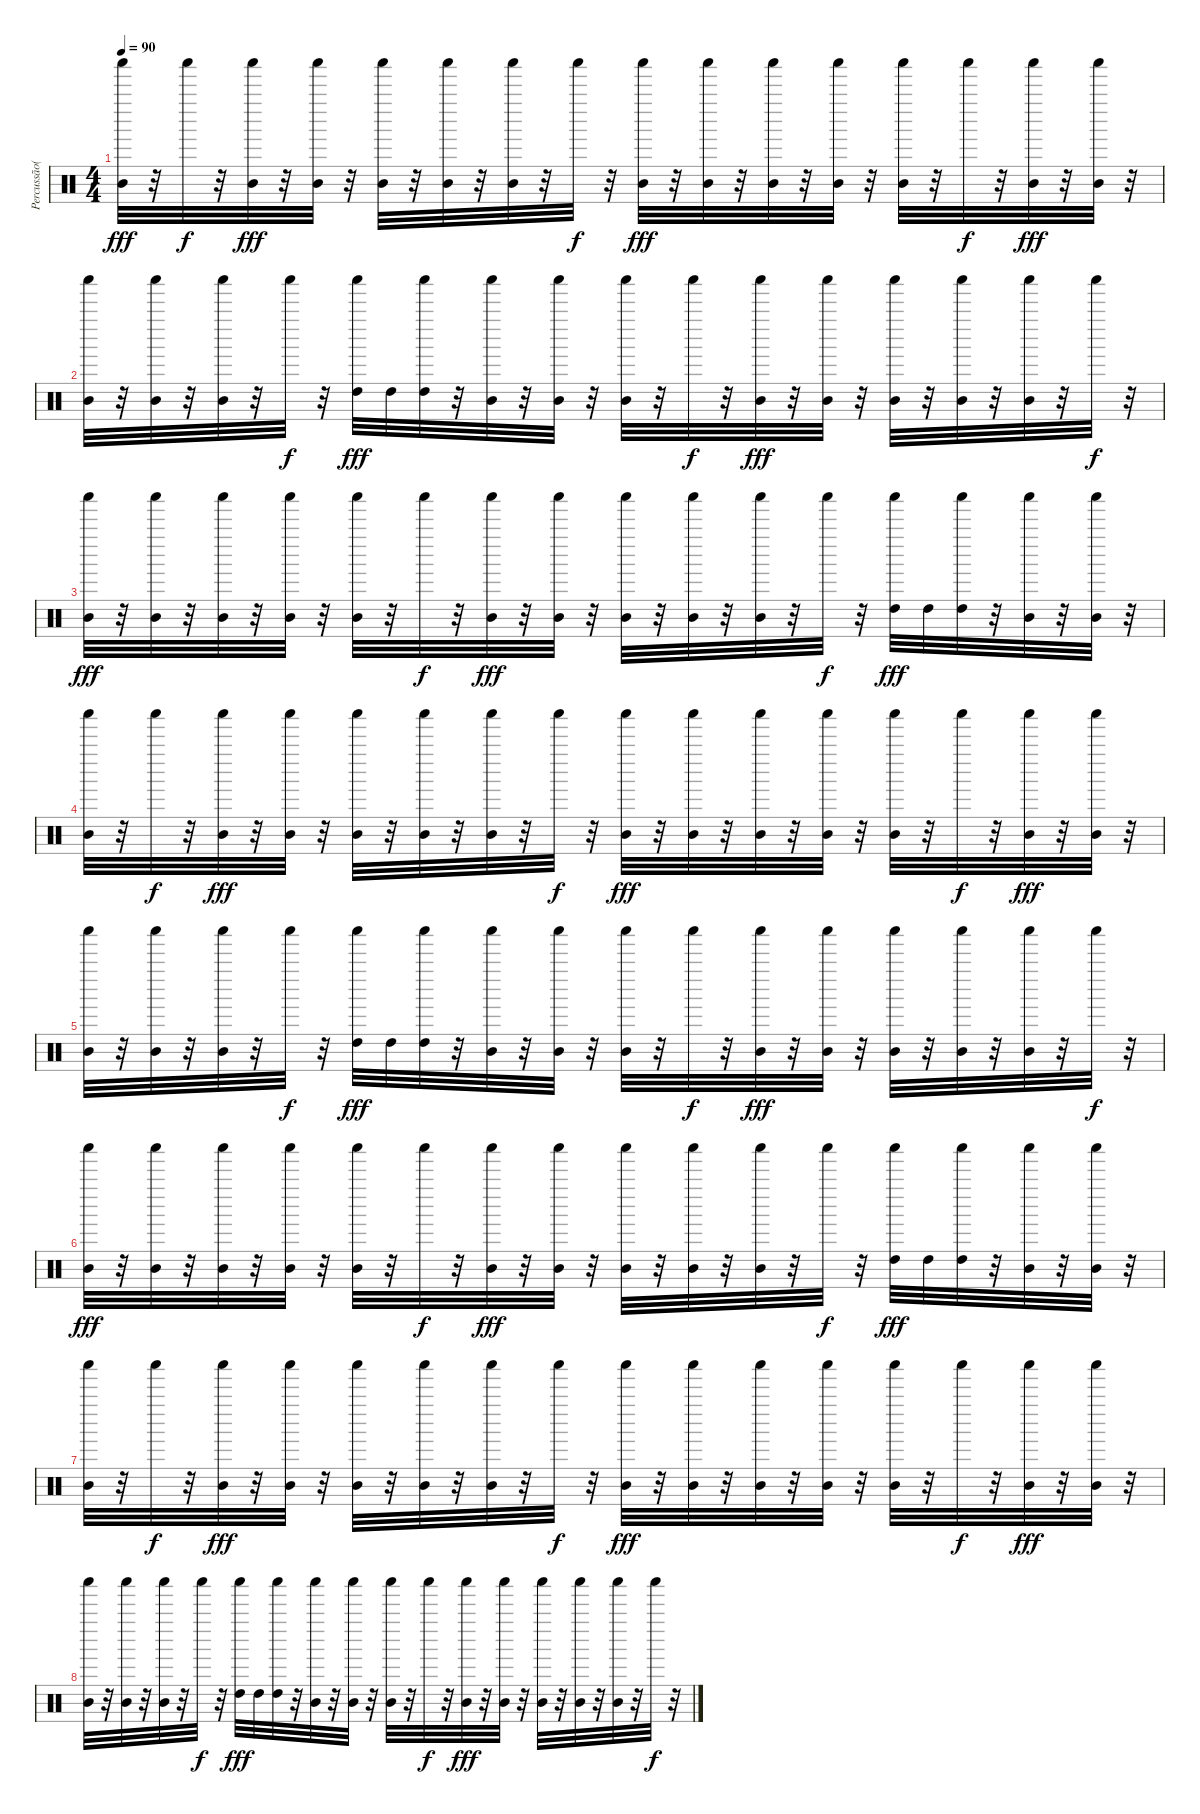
\track ("Percussão(Percussion)-1" "Percussão(") {instrument percussion}
\staff {score}
\articulation defaults
\ts (4 4)
\tempo 90
\clef neutral
\ks c
("Mid Tom (hit)" "Shaker (hit)").32{dy fff} r.32 "Shaker (hit)".32{dy f} r.32 ("Mid Tom (hit)" "Shaker (hit)").32{dy fff} r.32 ("Mid Tom (hit)" "Shaker (hit)").32 r.32 ("Mid Tom (hit)" "Shaker (hit)").32 r.32 ("Mid Tom (hit)" "Shaker (hit)").32 r.32 ("Mid Tom (hit)" "Shaker (hit)").32 r.32 "Shaker (hit)".32{dy f} r.32 ("Mid Tom (hit)" "Shaker (hit)").32{dy fff} r.32 ("Mid Tom (hit)" "Shaker (hit)").32 r.32 ("Mid Tom (hit)" "Shaker (hit)").32 r.32 ("Mid Tom (hit)" "Shaker (hit)").32 r.32 ("Mid Tom (hit)" "Shaker (hit)").32 r.32 "Shaker (hit)".32{dy f} r.32 ("Mid Tom (hit)" "Shaker (hit)").32{dy fff} r.32 ("Mid Tom (hit)" "Shaker (hit)").32 r.32 |
("Mid Tom (hit)" "Shaker (hit)").32 r.32 ("Mid Tom (hit)" "Shaker (hit)").32 r.32 ("Mid Tom (hit)" "Shaker (hit)").32 r.32 "Shaker (hit)".32{dy f} r.32 ("High Tom (hit)" "Shaker (hit)").32{dy fff} "High Tom (hit)".32 ("High Tom (hit)" "Shaker (hit)").32 r.32 ("Mid Tom (hit)" "Shaker (hit)").32 r.32 ("Mid Tom (hit)" "Shaker (hit)").32 r.32 ("Mid Tom (hit)" "Shaker (hit)").32 r.32 "Shaker (hit)".32{dy f} r.32 ("Mid Tom (hit)" "Shaker (hit)").32{dy fff} r.32 ("Mid Tom (hit)" "Shaker (hit)").32 r.32 ("Mid Tom (hit)" "Shaker (hit)").32 r.32 ("Mid Tom (hit)" "Shaker (hit)").32 r.32 ("Mid Tom (hit)" "Shaker (hit)").32 r.32 "Shaker (hit)".32{dy f} r.32 |
("Mid Tom (hit)" "Shaker (hit)").32{dy fff} r.32 ("Mid Tom (hit)" "Shaker (hit)").32 r.32 ("Mid Tom (hit)" "Shaker (hit)").32 r.32 ("Mid Tom (hit)" "Shaker (hit)").32 r.32 ("Mid Tom (hit)" "Shaker (hit)").32 r.32 "Shaker (hit)".32{dy f} r.32 ("Mid Tom (hit)" "Shaker (hit)").32{dy fff} r.32 ("Mid Tom (hit)" "Shaker (hit)").32 r.32 ("Mid Tom (hit)" "Shaker (hit)").32 r.32 ("Mid Tom (hit)" "Shaker (hit)").32 r.32 ("Mid Tom (hit)" "Shaker (hit)").32 r.32 "Shaker (hit)".32{dy f} r.32 ("High Tom (hit)" "Shaker (hit)").32{dy fff} "High Tom (hit)".32 ("High Tom (hit)" "Shaker (hit)").32 r.32 ("Mid Tom (hit)" "Shaker (hit)").32 r.32 ("Mid Tom (hit)" "Shaker (hit)").32 r.32 |
("Mid Tom (hit)" "Shaker (hit)").32 r.32 "Shaker (hit)".32{dy f} r.32 ("Mid Tom (hit)" "Shaker (hit)").32{dy fff} r.32 ("Mid Tom (hit)" "Shaker (hit)").32 r.32 ("Mid Tom (hit)" "Shaker (hit)").32 r.32 ("Mid Tom (hit)" "Shaker (hit)").32 r.32 ("Mid Tom (hit)" "Shaker (hit)").32 r.32 "Shaker (hit)".32{dy f} r.32 ("Mid Tom (hit)" "Shaker (hit)").32{dy fff} r.32 ("Mid Tom (hit)" "Shaker (hit)").32 r.32 ("Mid Tom (hit)" "Shaker (hit)").32 r.32 ("Mid Tom (hit)" "Shaker (hit)").32 r.32 ("Mid Tom (hit)" "Shaker (hit)").32 r.32 "Shaker (hit)".32{dy f} r.32 ("Mid Tom (hit)" "Shaker (hit)").32{dy fff} r.32 ("Mid Tom (hit)" "Shaker (hit)").32 r.32 |
("Mid Tom (hit)" "Shaker (hit)").32 r.32 ("Mid Tom (hit)" "Shaker (hit)").32 r.32 ("Mid Tom (hit)" "Shaker (hit)").32 r.32 "Shaker (hit)".32{dy f} r.32 ("High Tom (hit)" "Shaker (hit)").32{dy fff} "High Tom (hit)".32 ("High Tom (hit)" "Shaker (hit)").32 r.32 ("Mid Tom (hit)" "Shaker (hit)").32 r.32 ("Mid Tom (hit)" "Shaker (hit)").32 r.32 ("Mid Tom (hit)" "Shaker (hit)").32 r.32 "Shaker (hit)".32{dy f} r.32 ("Mid Tom (hit)" "Shaker (hit)").32{dy fff} r.32 ("Mid Tom (hit)" "Shaker (hit)").32 r.32 ("Mid Tom (hit)" "Shaker (hit)").32 r.32 ("Mid Tom (hit)" "Shaker (hit)").32 r.32 ("Mid Tom (hit)" "Shaker (hit)").32 r.32 "Shaker (hit)".32{dy f} r.32 |
("Mid Tom (hit)" "Shaker (hit)").32{dy fff} r.32 ("Mid Tom (hit)" "Shaker (hit)").32 r.32 ("Mid Tom (hit)" "Shaker (hit)").32 r.32 ("Mid Tom (hit)" "Shaker (hit)").32 r.32 ("Mid Tom (hit)" "Shaker (hit)").32 r.32 "Shaker (hit)".32{dy f} r.32 ("Mid Tom (hit)" "Shaker (hit)").32{dy fff} r.32 ("Mid Tom (hit)" "Shaker (hit)").32 r.32 ("Mid Tom (hit)" "Shaker (hit)").32 r.32 ("Mid Tom (hit)" "Shaker (hit)").32 r.32 ("Mid Tom (hit)" "Shaker (hit)").32 r.32 "Shaker (hit)".32{dy f} r.32 ("High Tom (hit)" "Shaker (hit)").32{dy fff} "High Tom (hit)".32 ("High Tom (hit)" "Shaker (hit)").32 r.32 ("Mid Tom (hit)" "Shaker (hit)").32 r.32 ("Mid Tom (hit)" "Shaker (hit)").32 r.32 |
("Mid Tom (hit)" "Shaker (hit)").32 r.32 "Shaker (hit)".32{dy f} r.32 ("Mid Tom (hit)" "Shaker (hit)").32{dy fff} r.32 ("Mid Tom (hit)" "Shaker (hit)").32 r.32 ("Mid Tom (hit)" "Shaker (hit)").32 r.32 ("Mid Tom (hit)" "Shaker (hit)").32 r.32 ("Mid Tom (hit)" "Shaker (hit)").32 r.32 "Shaker (hit)".32{dy f} r.32 ("Mid Tom (hit)" "Shaker (hit)").32{dy fff} r.32 ("Mid Tom (hit)" "Shaker (hit)").32 r.32 ("Mid Tom (hit)" "Shaker (hit)").32 r.32 ("Mid Tom (hit)" "Shaker (hit)").32 r.32 ("Mid Tom (hit)" "Shaker (hit)").32 r.32 "Shaker (hit)".32{dy f} r.32 ("Mid Tom (hit)" "Shaker (hit)").32{dy fff} r.32 ("Mid Tom (hit)" "Shaker (hit)").32 r.32 |
("Mid Tom (hit)" "Shaker (hit)").32 r.32 ("Mid Tom (hit)" "Shaker (hit)").32 r.32 ("Mid Tom (hit)" "Shaker (hit)").32 r.32 "Shaker (hit)".32{dy f} r.32 ("High Tom (hit)" "Shaker (hit)").32{dy fff} "High Tom (hit)".32 ("High Tom (hit)" "Shaker (hit)").32 r.32 ("Mid Tom (hit)" "Shaker (hit)").32 r.32 ("Mid Tom (hit)" "Shaker (hit)").32 r.32 ("Mid Tom (hit)" "Shaker (hit)").32 r.32 "Shaker (hit)".32{dy f} r.32 ("Mid Tom (hit)" "Shaker (hit)").32{dy fff} r.32 ("Mid Tom (hit)" "Shaker (hit)").32 r.32 ("Mid Tom (hit)" "Shaker (hit)").32 r.32 ("Mid Tom (hit)" "Shaker (hit)").32 r.32 ("Mid Tom (hit)" "Shaker (hit)").32 r.32 "Shaker (hit)".32{dy f} r.32
